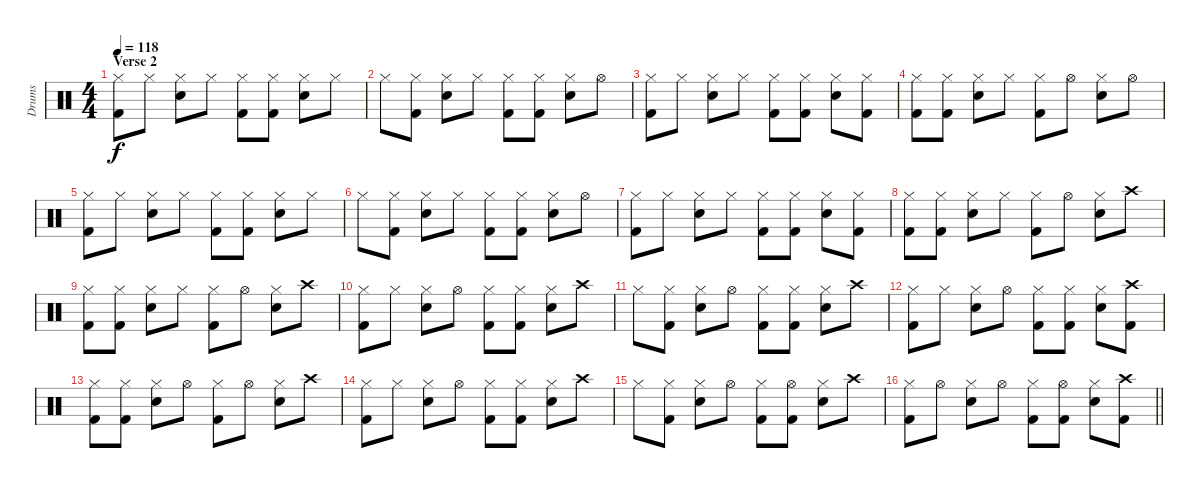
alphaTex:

\track ("Drums" "Drums") {solo instrument percussion}
\staff {score}
\articulation defaults
\ts (4 4)
\section ("" "Verse 2")
\tempo 118
\clef neutral
\ks c
("Hi-Hat (closed)" "Kick (hit) 2").8{dy f} "Hi-Hat (closed)".8 ("Hi-Hat (closed)" "Snare (hit) 2").8 "Hi-Hat (closed)".8 ("Hi-Hat (closed)" "Kick (hit) 2").8 ("Hi-Hat (closed)" "Kick (hit) 2").8 ("Hi-Hat (closed)" "Snare (hit) 2").8 "Hi-Hat (closed)".8 |
"Hi-Hat (closed)".8 ("Hi-Hat (closed)" "Kick (hit) 2").8 ("Hi-Hat (closed)" "Snare (hit) 2").8 "Hi-Hat (closed)".8 ("Hi-Hat (closed)" "Kick (hit) 2").8 ("Hi-Hat (closed)" "Kick (hit) 2").8 ("Hi-Hat (closed)" "Snare (hit) 2").8 "Hi-Hat (open)".8 |
("Hi-Hat (closed)" "Kick (hit) 2").8 "Hi-Hat (closed)".8 ("Hi-Hat (closed)" "Snare (hit) 2").8 "Hi-Hat (closed)".8 ("Hi-Hat (closed)" "Kick (hit) 2").8 ("Hi-Hat (closed)" "Kick (hit) 2").8 ("Hi-Hat (closed)" "Snare (hit) 2").8 ("Hi-Hat (closed)" "Kick (hit) 2").8 |
("Hi-Hat (closed)" "Kick (hit) 2").8 ("Hi-Hat (closed)" "Kick (hit) 2").8 ("Hi-Hat (closed)" "Snare (hit) 2").8 "Hi-Hat (closed)".8 ("Hi-Hat (closed)" "Kick (hit) 2").8 "Hi-Hat (open)".8 ("Hi-Hat (closed)" "Snare (hit) 2").8 "Hi-Hat (open)".8 |
("Hi-Hat (closed)" "Kick (hit) 2").8 "Hi-Hat (closed)".8 ("Hi-Hat (closed)" "Snare (hit) 2").8 "Hi-Hat (closed)".8 ("Hi-Hat (closed)" "Kick (hit) 2").8 ("Hi-Hat (closed)" "Kick (hit) 2").8 ("Hi-Hat (closed)" "Snare (hit) 2").8 "Hi-Hat (closed)".8 |
"Hi-Hat (closed)".8 ("Hi-Hat (closed)" "Kick (hit) 2").8 ("Hi-Hat (closed)" "Snare (hit) 2").8 "Hi-Hat (closed)".8 ("Hi-Hat (closed)" "Kick (hit) 2").8 ("Hi-Hat (closed)" "Kick (hit) 2").8 ("Hi-Hat (closed)" "Snare (hit) 2").8 "Hi-Hat (open)".8 |
("Hi-Hat (closed)" "Kick (hit) 2").8 "Hi-Hat (closed)".8 ("Hi-Hat (closed)" "Snare (hit) 2").8 "Hi-Hat (closed)".8 ("Hi-Hat (closed)" "Kick (hit) 2").8 ("Hi-Hat (closed)" "Kick (hit) 2").8 ("Hi-Hat (closed)" "Snare (hit) 2").8 ("Hi-Hat (closed)" "Kick (hit) 2").8 |
("Hi-Hat (closed)" "Kick (hit) 2").8 ("Hi-Hat (closed)" "Kick (hit) 2").8 ("Hi-Hat (closed)" "Snare (hit) 2").8 "Hi-Hat (closed)".8 ("Hi-Hat (closed)" "Kick (hit) 2").8 "Hi-Hat (open)".8 ("Hi-Hat (closed)" "Snare (hit) 2").8 "Crash high (hit)".8 |
("Hi-Hat (closed)" "Kick (hit) 2").8 ("Hi-Hat (closed)" "Kick (hit) 2").8 ("Hi-Hat (closed)" "Snare (hit) 2").8 "Hi-Hat (closed)".8 ("Hi-Hat (closed)" "Kick (hit) 2").8 "Hi-Hat (open)".8 ("Hi-Hat (closed)" "Snare (hit) 2").8 "Crash high (hit)".8 |
("Hi-Hat (closed)" "Kick (hit) 2").8 "Hi-Hat (closed)".8 ("Hi-Hat (closed)" "Snare (hit) 2").8 "Hi-Hat (open)".8 ("Hi-Hat (closed)" "Kick (hit) 2").8 ("Hi-Hat (closed)" "Kick (hit) 2").8 ("Hi-Hat (closed)" "Snare (hit) 2").8 "Crash high (hit)".8 |
"Hi-Hat (closed)".8 ("Hi-Hat (closed)" "Kick (hit) 2").8 ("Hi-Hat (closed)" "Snare (hit) 2").8 "Hi-Hat (open)".8 ("Hi-Hat (closed)" "Kick (hit) 2").8 ("Hi-Hat (closed)" "Kick (hit) 2").8 ("Hi-Hat (closed)" "Snare (hit) 2").8 "Crash high (hit)".8 |
("Hi-Hat (closed)" "Kick (hit) 2").8 "Hi-Hat (closed)".8 ("Hi-Hat (closed)" "Snare (hit) 2").8 "Hi-Hat (open)".8 ("Hi-Hat (closed)" "Kick (hit) 2").8 ("Hi-Hat (closed)" "Kick (hit) 2").8 ("Hi-Hat (closed)" "Snare (hit) 2").8 ("Crash high (hit)" "Kick (hit) 2").8 |
("Hi-Hat (closed)" "Kick (hit) 2").8 ("Hi-Hat (closed)" "Kick (hit) 2").8 ("Hi-Hat (closed)" "Snare (hit) 2").8 "Hi-Hat (open)".8 ("Hi-Hat (closed)" "Kick (hit) 2").8 "Hi-Hat (open)".8 ("Hi-Hat (closed)" "Snare (hit) 2").8 "Crash high (hit)".8 |
("Hi-Hat (closed)" "Kick (hit) 2").8 "Hi-Hat (closed)".8 ("Hi-Hat (closed)" "Snare (hit) 2").8 "Hi-Hat (open)".8 ("Hi-Hat (closed)" "Kick (hit) 2").8 ("Hi-Hat (closed)" "Kick (hit) 2").8 ("Hi-Hat (closed)" "Snare (hit) 2").8 "Crash high (hit)".8 |
"Hi-Hat (closed)".8 ("Hi-Hat (closed)" "Kick (hit) 2").8 ("Hi-Hat (closed)" "Snare (hit) 2").8 "Hi-Hat (open)".8 ("Hi-Hat (closed)" "Kick (hit) 2").8 ("Hi-Hat (open)" "Kick (hit) 2").8 ("Hi-Hat (closed)" "Snare (hit) 2").8 "Crash high (hit)".8 |
\barLineRight lightlight
("Hi-Hat (closed)" "Kick (hit) 2").8 "Hi-Hat (open)".8 ("Hi-Hat (closed)" "Snare (hit) 2").8 "Hi-Hat (open)".8 ("Hi-Hat (closed)" "Kick (hit) 2").8 ("Hi-Hat (open)" "Kick (hit) 2").8 ("Hi-Hat (closed)" "Snare (hit) 2").8 ("Crash high (hit)" "Kick (hit) 2").8
